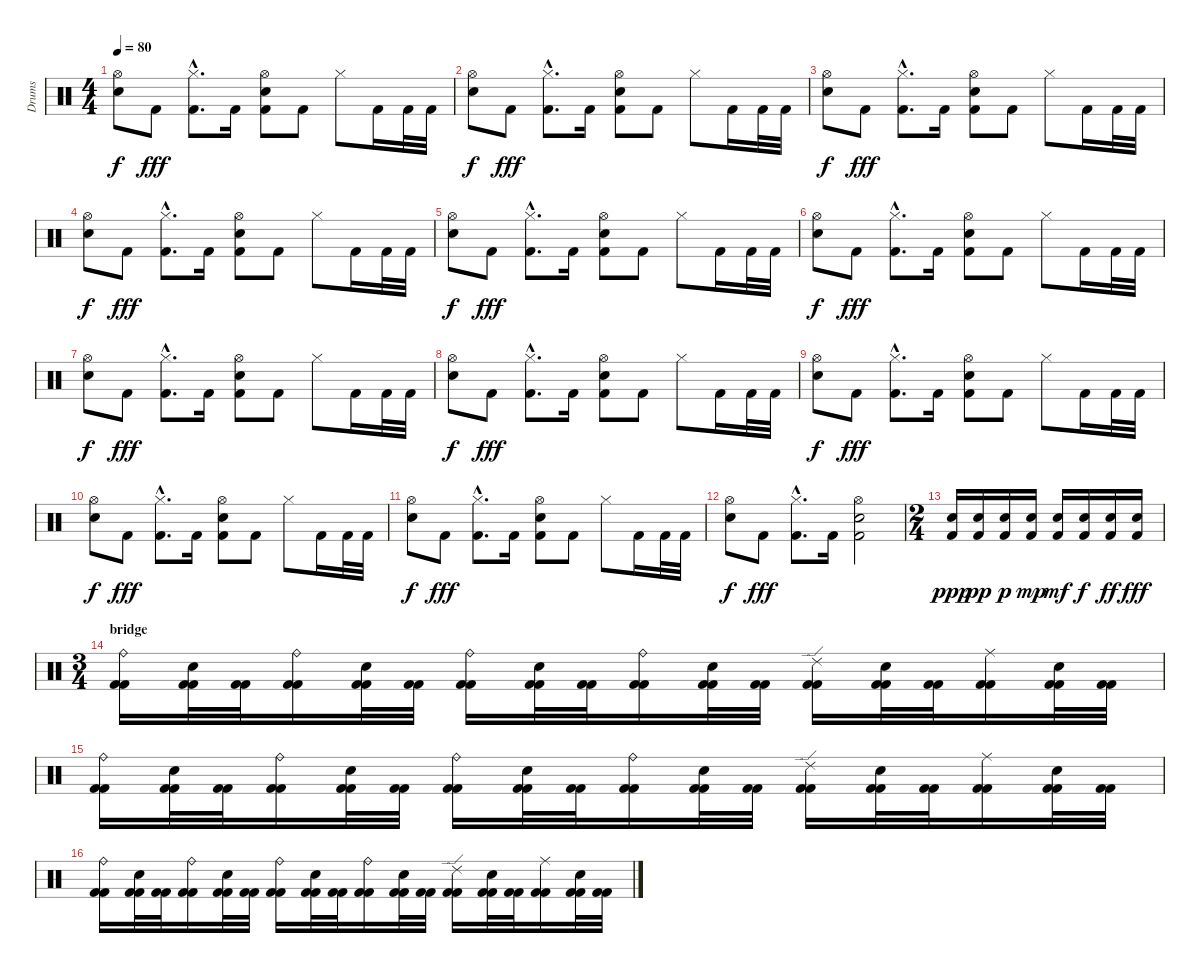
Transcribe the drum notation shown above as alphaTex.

\track ("Drums" "Drums") {instrument percussion}
\staff {score}
\articulation defaults
\ts (4 4)
\tempo 80
\clef neutral
\ks c
("Hi-Hat (open)" "Electric Snare (hit)").8{dy f} "Kick (hit) 2".8{dy fff} ("Hi-Hat (closed)"{hac} "Kick (hit) 2"{hac}).8{d} "Kick (hit) 2".16 ("Hi-Hat (open)" "Kick (hit) 2" "Snare (hit) 2").8 "Kick (hit) 2".8 "Hi-Hat (closed)".8 "Kick (hit) 2".16 "Kick (hit) 2".32 "Kick (hit) 2".32 |
("Hi-Hat (open)" "Electric Snare (hit)").8{dy f} "Kick (hit) 2".8{dy fff} ("Hi-Hat (closed)"{hac} "Kick (hit) 2"{hac}).8{d} "Kick (hit) 2".16 ("Hi-Hat (open)" "Kick (hit) 2" "Snare (hit) 2").8 "Kick (hit) 2".8 "Hi-Hat (closed)".8 "Kick (hit) 2".16 "Kick (hit) 2".32 "Kick (hit) 2".32 |
("Hi-Hat (open)" "Electric Snare (hit)").8{dy f} "Kick (hit) 2".8{dy fff} ("Hi-Hat (closed)"{hac} "Kick (hit) 2"{hac}).8{d} "Kick (hit) 2".16 ("Hi-Hat (open)" "Kick (hit) 2" "Snare (hit) 2").8 "Kick (hit) 2".8 "Hi-Hat (closed)".8 "Kick (hit) 2".16 "Kick (hit) 2".32 "Kick (hit) 2".32 |
("Hi-Hat (open)" "Electric Snare (hit)").8{dy f} "Kick (hit) 2".8{dy fff} ("Hi-Hat (closed)"{hac} "Kick (hit) 2"{hac}).8{d} "Kick (hit) 2".16 ("Hi-Hat (open)" "Kick (hit) 2" "Snare (hit) 2").8 "Kick (hit) 2".8 "Hi-Hat (closed)".8 "Kick (hit) 2".16 "Kick (hit) 2".32 "Kick (hit) 2".32 |
("Hi-Hat (open)" "Electric Snare (hit)").8{dy f} "Kick (hit) 2".8{dy fff} ("Hi-Hat (closed)"{hac} "Kick (hit) 2"{hac}).8{d} "Kick (hit) 2".16 ("Hi-Hat (open)" "Kick (hit) 2" "Snare (hit) 2").8 "Kick (hit) 2".8 "Hi-Hat (closed)".8 "Kick (hit) 2".16 "Kick (hit) 2".32 "Kick (hit) 2".32 |
("Hi-Hat (open)" "Electric Snare (hit)").8{dy f} "Kick (hit) 2".8{dy fff} ("Hi-Hat (closed)"{hac} "Kick (hit) 2"{hac}).8{d} "Kick (hit) 2".16 ("Hi-Hat (open)" "Kick (hit) 2" "Snare (hit) 2").8 "Kick (hit) 2".8 "Hi-Hat (closed)".8 "Kick (hit) 2".16 "Kick (hit) 2".32 "Kick (hit) 2".32 |
("Hi-Hat (open)" "Electric Snare (hit)").8{dy f} "Kick (hit) 2".8{dy fff} ("Hi-Hat (closed)"{hac} "Kick (hit) 2"{hac}).8{d} "Kick (hit) 2".16 ("Hi-Hat (open)" "Kick (hit) 2" "Snare (hit) 2").8 "Kick (hit) 2".8 "Hi-Hat (closed)".8 "Kick (hit) 2".16 "Kick (hit) 2".32 "Kick (hit) 2".32 |
("Hi-Hat (open)" "Electric Snare (hit)").8{dy f} "Kick (hit) 2".8{dy fff} ("Hi-Hat (closed)"{hac} "Kick (hit) 2"{hac}).8{d} "Kick (hit) 2".16 ("Hi-Hat (open)" "Kick (hit) 2" "Snare (hit) 2").8 "Kick (hit) 2".8 "Hi-Hat (closed)".8 "Kick (hit) 2".16 "Kick (hit) 2".32 "Kick (hit) 2".32 |
("Hi-Hat (open)" "Electric Snare (hit)").8{dy f} "Kick (hit) 2".8{dy fff} ("Hi-Hat (closed)"{hac} "Kick (hit) 2"{hac}).8{d} "Kick (hit) 2".16 ("Hi-Hat (open)" "Kick (hit) 2" "Snare (hit) 2").8 "Kick (hit) 2".8 "Hi-Hat (closed)".8 "Kick (hit) 2".16 "Kick (hit) 2".32 "Kick (hit) 2".32 |
("Hi-Hat (open)" "Electric Snare (hit)").8{dy f} "Kick (hit) 2".8{dy fff} ("Hi-Hat (closed)"{hac} "Kick (hit) 2"{hac}).8{d} "Kick (hit) 2".16 ("Hi-Hat (open)" "Kick (hit) 2" "Snare (hit) 2").8 "Kick (hit) 2".8 "Hi-Hat (closed)".8 "Kick (hit) 2".16 "Kick (hit) 2".32 "Kick (hit) 2".32 |
("Hi-Hat (open)" "Electric Snare (hit)").8{dy f} "Kick (hit) 2".8{dy fff} ("Hi-Hat (closed)"{hac} "Kick (hit) 2"{hac}).8{d} "Kick (hit) 2".16 ("Hi-Hat (open)" "Kick (hit) 2" "Snare (hit) 2").8 "Kick (hit) 2".8 "Hi-Hat (closed)".8 "Kick (hit) 2".16 "Kick (hit) 2".32 "Kick (hit) 2".32 |
("Hi-Hat (open)" "Electric Snare (hit)").8{dy f} "Kick (hit) 2".8{dy fff} ("Hi-Hat (closed)"{hac} "Kick (hit) 2"{hac}).8{d} "Kick (hit) 2".16 ("Hi-Hat (open)" "Kick (hit) 2" "Snare (hit) 2").2 |
\ts (2 4)
("Kick (hit) 2" "Electric Snare (hit)").16{dy ppp} ("Kick (hit) 2" "Electric Snare (hit)").16{dy pp} ("Kick (hit) 2" "Electric Snare (hit)").16{dy p} ("Kick (hit) 2" "Electric Snare (hit)").16{dy mp} ("Kick (hit) 2" "Electric Snare (hit)").16{dy mf} ("Kick (hit) 2" "Electric Snare (hit)").16{dy f} ("Kick (hit) 2" "Electric Snare (hit)").16{dy ff} ("Kick (hit) 2" "Electric Snare (hit)").16{dy fff} |
\ts (3 4)
\section ("" "bridge")
("Ride (bell)" "Kick (hit) 2" "Kick (hit) 2").16 ("Electric Snare (hit)" "Kick (hit) 2" "Kick (hit) 2").32 ("Kick (hit) 2" "Kick (hit) 2").32 ("Ride (bell)" "Kick (hit) 2" "Kick (hit) 2").16 ("Electric Snare (hit)" "Kick (hit) 2" "Kick (hit) 2").32 ("Kick (hit) 2" "Kick (hit) 2").32 ("Ride (bell)" "Kick (hit) 2" "Kick (hit) 2").16 ("Electric Snare (hit)" "Kick (hit) 2" "Kick (hit) 2").32 ("Kick (hit) 2" "Kick (hit) 2").32 ("Ride (bell)" "Kick (hit) 2" "Kick (hit) 2").16 ("Electric Snare (hit)" "Kick (hit) 2" "Kick (hit) 2").32 ("Kick (hit) 2" "Kick (hit) 2").32 ("Ride (edge) 2" "Kick (hit) 2" "Kick (hit) 2").16 ("Snare (hit) 2" "Kick (hit) 2" "Kick (hit) 2").32 ("Kick (hit) 2" "Kick (hit) 2").32 ("Ride (middle)" "Kick (hit) 2" "Kick (hit) 2").16 ("Snare (hit) 2" "Kick (hit) 2" "Kick (hit) 2").32 ("Kick (hit) 2" "Kick (hit) 2").32 |
("Ride (bell)" "Kick (hit) 2" "Kick (hit) 2").16 ("Electric Snare (hit)" "Kick (hit) 2" "Kick (hit) 2").32 ("Kick (hit) 2" "Kick (hit) 2").32 ("Ride (bell)" "Kick (hit) 2" "Kick (hit) 2").16 ("Electric Snare (hit)" "Kick (hit) 2" "Kick (hit) 2").32 ("Kick (hit) 2" "Kick (hit) 2").32 ("Ride (bell)" "Kick (hit) 2" "Kick (hit) 2").16 ("Electric Snare (hit)" "Kick (hit) 2" "Kick (hit) 2").32 ("Kick (hit) 2" "Kick (hit) 2").32 ("Ride (bell)" "Kick (hit) 2" "Kick (hit) 2").16 ("Electric Snare (hit)" "Kick (hit) 2" "Kick (hit) 2").32 ("Kick (hit) 2" "Kick (hit) 2").32 ("Ride (edge) 2" "Kick (hit) 2" "Kick (hit) 2").16 ("Snare (hit) 2" "Kick (hit) 2" "Kick (hit) 2").32 ("Kick (hit) 2" "Kick (hit) 2").32 ("Ride (middle)" "Kick (hit) 2" "Kick (hit) 2").16 ("Snare (hit) 2" "Kick (hit) 2" "Kick (hit) 2").32 ("Kick (hit) 2" "Kick (hit) 2").32 |
("Ride (bell)" "Kick (hit) 2" "Kick (hit) 2").16 ("Electric Snare (hit)" "Kick (hit) 2" "Kick (hit) 2").32 ("Kick (hit) 2" "Kick (hit) 2").32 ("Ride (bell)" "Kick (hit) 2" "Kick (hit) 2").16 ("Electric Snare (hit)" "Kick (hit) 2" "Kick (hit) 2").32 ("Kick (hit) 2" "Kick (hit) 2").32 ("Ride (bell)" "Kick (hit) 2" "Kick (hit) 2").16 ("Electric Snare (hit)" "Kick (hit) 2" "Kick (hit) 2").32 ("Kick (hit) 2" "Kick (hit) 2").32 ("Ride (bell)" "Kick (hit) 2" "Kick (hit) 2").16 ("Electric Snare (hit)" "Kick (hit) 2" "Kick (hit) 2").32 ("Kick (hit) 2" "Kick (hit) 2").32 ("Ride (edge) 2" "Kick (hit) 2" "Kick (hit) 2").16 ("Snare (hit) 2" "Kick (hit) 2" "Kick (hit) 2").32 ("Kick (hit) 2" "Kick (hit) 2").32 ("Ride (middle)" "Kick (hit) 2" "Kick (hit) 2").16 ("Snare (hit) 2" "Kick (hit) 2" "Kick (hit) 2").32 ("Kick (hit) 2" "Kick (hit) 2").32
